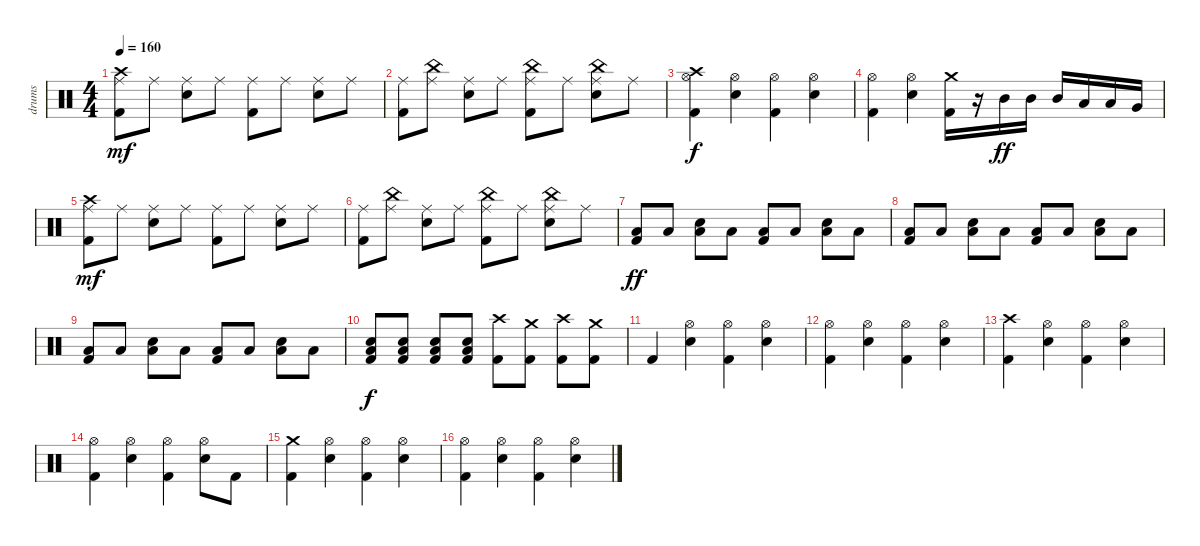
\track ("drums" "drums") {instrument percussion}
\staff {score}
\articulation defaults
\ts (4 4)
\tempo 160
\clef neutral
\ks c
("Kick (hit) 2" "Crash high (hit)" "Ride (middle)").8{dy mf} "Ride (middle)".8 ("Ride (middle)" "Snare (hit) 2").8 "Ride (middle)".8 ("Kick (hit) 2" "Ride (middle)").8 "Ride (middle)".8 ("Ride (middle)" "Snare (hit) 2").8 "Ride (middle)".8 |
("Kick (hit) 2" "Ride (middle)").8 ("China (hit)" "Ride (middle)").8 ("Ride (middle)" "Snare (hit) 2").8 "Ride (middle)".8 ("Kick (hit) 2" "China (hit)" "Ride (middle)").8 "Ride (middle)".8 ("China (hit)" "Ride (middle)" "Snare (hit) 2").8 "Ride (middle)".8 |
("Kick (hit) 2" "Crash high (hit)" "Hi-Hat (open)").4{dy f} ("Hi-Hat (open)" "Snare (hit) 2").4 ("Kick (hit) 2" "Hi-Hat (open)").4 ("Hi-Hat (open)" "Snare (hit) 2").4 |
("Kick (hit) 2" "Hi-Hat (open)").4 ("Hi-Hat (open)" "Snare (hit) 2").4 ("Kick (hit) 2" "Crash medium (hit)").16 r.16 "Mid Tom (hit)".16{dy ff} "Mid Tom (hit)".16 "Mid Tom (hit)".16 "Low Tom (hit)".16 "Low Tom (hit)".16 "Very Low Tom (hit)".16 |
("Kick (hit) 2" "Crash high (hit)" "Ride (middle)").8{dy mf} "Ride (middle)".8 ("Ride (middle)" "Snare (hit) 2").8 "Ride (middle)".8 ("Kick (hit) 2" "Ride (middle)").8 "Ride (middle)".8 ("Ride (middle)" "Snare (hit) 2").8 "Ride (middle)".8 |
("Kick (hit) 2" "Ride (middle)").8 ("China (hit)" "Ride (middle)").8 ("Ride (middle)" "Snare (hit) 2").8 "Ride (middle)".8 ("Kick (hit) 2" "China (hit)" "Ride (middle)").8 "Ride (middle)".8 ("China (hit)" "Ride (middle)" "Snare (hit) 2").8 "Ride (middle)".8 |
("Kick (hit) 2" "Low Floor Tom (hit)").8{dy ff} "Low Floor Tom (hit)".8 ("Low Floor Tom (hit)" "Snare (hit) 2").8 "Low Floor Tom (hit)".8 ("Kick (hit) 2" "Low Floor Tom (hit)").8 "Low Floor Tom (hit)".8 ("Low Floor Tom (hit)" "Snare (hit) 2").8 "Low Floor Tom (hit)".8 |
("Kick (hit) 2" "Low Floor Tom (hit)").8 "Low Floor Tom (hit)".8 ("Low Floor Tom (hit)" "Snare (hit) 2").8 "Low Floor Tom (hit)".8 ("Kick (hit) 2" "Low Floor Tom (hit)").8 "Low Floor Tom (hit)".8 ("Low Floor Tom (hit)" "Snare (hit) 2").8 "Low Floor Tom (hit)".8 |
("Kick (hit) 2" "Low Floor Tom (hit)").8 "Low Floor Tom (hit)".8 ("Low Floor Tom (hit)" "Snare (hit) 2").8 "Low Floor Tom (hit)".8 ("Kick (hit) 2" "Low Floor Tom (hit)").8 "Low Floor Tom (hit)".8 ("Low Floor Tom (hit)" "Snare (hit) 2").8 "Low Floor Tom (hit)".8 |
("Kick (hit) 2" "Low Floor Tom (hit)" "Snare (hit) 2").8{dy f} ("Kick (hit) 2" "Low Floor Tom (hit)" "Snare (hit) 2").8 ("Kick (hit) 2" "Low Floor Tom (hit)" "Snare (hit) 2").8 ("Kick (hit) 2" "Low Floor Tom (hit)" "Snare (hit) 2").8 ("Kick (hit) 2" "Crash high (hit)").8 ("Kick (hit) 2" "Crash medium (hit)").8 ("Kick (hit) 2" "Crash high (hit)").8 ("Kick (hit) 2" "Crash medium (hit)").8 |
"Kick (hit) 2".4 ("Hi-Hat (open)" "Snare (hit) 2").4 ("Kick (hit) 2" "Hi-Hat (open)").4 ("Hi-Hat (open)" "Snare (hit) 2").4 |
("Kick (hit) 2" "Hi-Hat (open)").4 ("Hi-Hat (open)" "Snare (hit) 2").4 ("Kick (hit) 2" "Hi-Hat (open)").4 ("Hi-Hat (open)" "Snare (hit) 2").4 |
("Kick (hit) 2" "Crash high (hit)").4 ("Hi-Hat (open)" "Snare (hit) 2").4 ("Kick (hit) 2" "Hi-Hat (open)").4 ("Hi-Hat (open)" "Snare (hit) 2").4 |
("Kick (hit) 2" "Hi-Hat (open)").4 ("Hi-Hat (open)" "Snare (hit) 2").4 ("Kick (hit) 2" "Hi-Hat (open)").4 ("Hi-Hat (open)" "Snare (hit) 2").8 "Kick (hit) 2".8 |
("Kick (hit) 2" "Crash medium (hit)").4 ("Hi-Hat (open)" "Snare (hit) 2").4 ("Kick (hit) 2" "Hi-Hat (open)").4 ("Hi-Hat (open)" "Snare (hit) 2").4 |
("Kick (hit) 2" "Hi-Hat (open)").4 ("Hi-Hat (open)" "Snare (hit) 2").4 ("Kick (hit) 2" "Hi-Hat (open)").4 ("Hi-Hat (open)" "Snare (hit) 2").4
